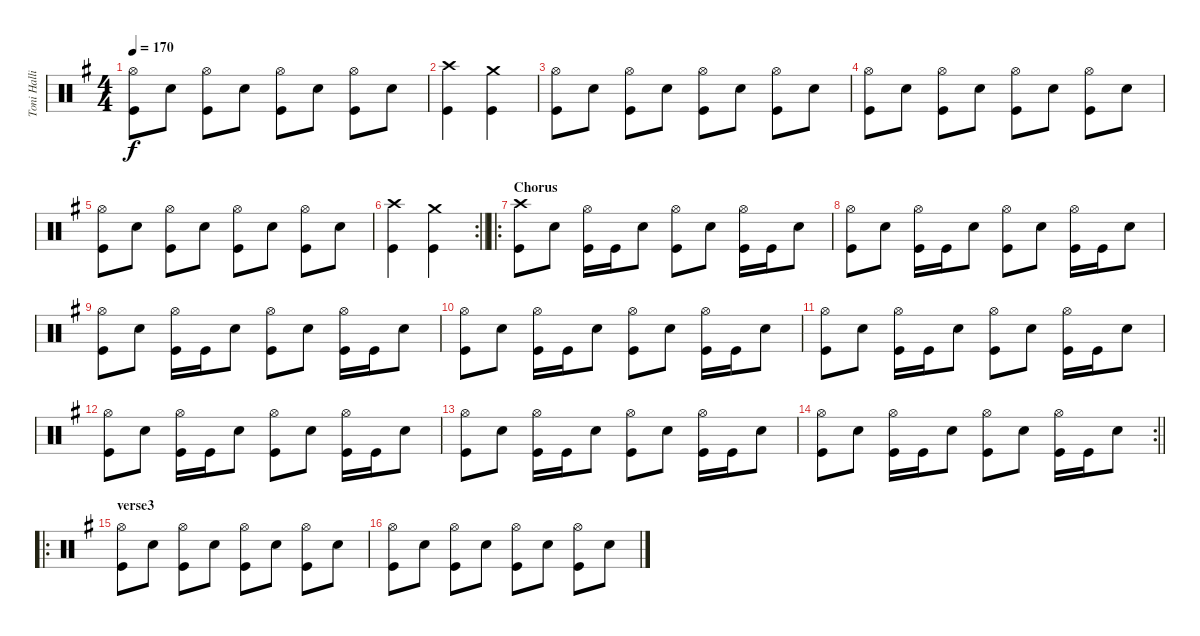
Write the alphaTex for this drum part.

\track ("Toni Hallio" "Toni Halli") {instrument percussion}
\staff {score}
\articulation defaults
\ts (4 4)
\tempo 170
\clef neutral
\ks g
("Hi-Hat (open)" "Kick (hit)").8{dy f} "Snare (hit) 2".8 ("Hi-Hat (open)" "Kick (hit)").8 "Snare (hit) 2".8 ("Hi-Hat (open)" "Kick (hit)").8 "Snare (hit) 2".8 ("Hi-Hat (open)" "Kick (hit)").8 "Snare (hit) 2".8 |
("Crash high (hit)" "Kick (hit)").4 ("Crash medium (hit)" "Kick (hit)").4 |
("Hi-Hat (open)" "Kick (hit)").8 "Snare (hit) 2".8 ("Hi-Hat (open)" "Kick (hit)").8 "Snare (hit) 2".8 ("Hi-Hat (open)" "Kick (hit)").8 "Snare (hit) 2".8 ("Hi-Hat (open)" "Kick (hit)").8 "Snare (hit) 2".8 |
("Hi-Hat (open)" "Kick (hit)").8 "Snare (hit) 2".8 ("Hi-Hat (open)" "Kick (hit)").8 "Snare (hit) 2".8 ("Hi-Hat (open)" "Kick (hit)").8 "Snare (hit) 2".8 ("Hi-Hat (open)" "Kick (hit)").8 "Snare (hit) 2".8 |
("Hi-Hat (open)" "Kick (hit)").8 "Snare (hit) 2".8 ("Hi-Hat (open)" "Kick (hit)").8 "Snare (hit) 2".8 ("Hi-Hat (open)" "Kick (hit)").8 "Snare (hit) 2".8 ("Hi-Hat (open)" "Kick (hit)").8 "Snare (hit) 2".8 |
\rc 2
\barLineRight lightlight
("Crash high (hit)" "Kick (hit)").4 ("Crash medium (hit)" "Kick (hit)").4 |
\ro
\section ("" "Chorus")
("Crash high (hit)" "Kick (hit)").8 "Snare (hit) 2".8 ("Hi-Hat (open)" "Kick (hit)").16 "Kick (hit)".16 "Snare (hit) 2".8 ("Hi-Hat (open)" "Kick (hit)").8 "Snare (hit) 2".8 ("Hi-Hat (open)" "Kick (hit)").16 "Kick (hit)".16 "Snare (hit) 2".8 |
("Hi-Hat (open)" "Kick (hit)").8 "Snare (hit) 2".8 ("Hi-Hat (open)" "Kick (hit)").16 "Kick (hit)".16 "Snare (hit) 2".8 ("Hi-Hat (open)" "Kick (hit)").8 "Snare (hit) 2".8 ("Hi-Hat (open)" "Kick (hit)").16 "Kick (hit)".16 "Snare (hit) 2".8 |
("Hi-Hat (open)" "Kick (hit)").8 "Snare (hit) 2".8 ("Hi-Hat (open)" "Kick (hit)").16 "Kick (hit)".16 "Snare (hit) 2".8 ("Hi-Hat (open)" "Kick (hit)").8 "Snare (hit) 2".8 ("Hi-Hat (open)" "Kick (hit)").16 "Kick (hit)".16 "Snare (hit) 2".8 |
("Hi-Hat (open)" "Kick (hit)").8 "Snare (hit) 2".8 ("Hi-Hat (open)" "Kick (hit)").16 "Kick (hit)".16 "Snare (hit) 2".8 ("Hi-Hat (open)" "Kick (hit)").8 "Snare (hit) 2".8 ("Hi-Hat (open)" "Kick (hit)").16 "Kick (hit)".16 "Snare (hit) 2".8 |
("Hi-Hat (open)" "Kick (hit)").8 "Snare (hit) 2".8 ("Hi-Hat (open)" "Kick (hit)").16 "Kick (hit)".16 "Snare (hit) 2".8 ("Hi-Hat (open)" "Kick (hit)").8 "Snare (hit) 2".8 ("Hi-Hat (open)" "Kick (hit)").16 "Kick (hit)".16 "Snare (hit) 2".8 |
("Hi-Hat (open)" "Kick (hit)").8 "Snare (hit) 2".8 ("Hi-Hat (open)" "Kick (hit)").16 "Kick (hit)".16 "Snare (hit) 2".8 ("Hi-Hat (open)" "Kick (hit)").8 "Snare (hit) 2".8 ("Hi-Hat (open)" "Kick (hit)").16 "Kick (hit)".16 "Snare (hit) 2".8 |
("Hi-Hat (open)" "Kick (hit)").8 "Snare (hit) 2".8 ("Hi-Hat (open)" "Kick (hit)").16 "Kick (hit)".16 "Snare (hit) 2".8 ("Hi-Hat (open)" "Kick (hit)").8 "Snare (hit) 2".8 ("Hi-Hat (open)" "Kick (hit)").16 "Kick (hit)".16 "Snare (hit) 2".8 |
\rc 2
\barLineRight lightlight
("Hi-Hat (open)" "Kick (hit)").8 "Snare (hit) 2".8 ("Hi-Hat (open)" "Kick (hit)").16 "Kick (hit)".16 "Snare (hit) 2".8 ("Hi-Hat (open)" "Kick (hit)").8 "Snare (hit) 2".8 ("Hi-Hat (open)" "Kick (hit)").16 "Kick (hit)".16 "Snare (hit) 2".8 |
\ro
\section ("" "verse3")
("Hi-Hat (open)" "Kick (hit)").8 "Snare (hit) 2".8 ("Hi-Hat (open)" "Kick (hit)").8 "Snare (hit) 2".8 ("Hi-Hat (open)" "Kick (hit)").8 "Snare (hit) 2".8 ("Hi-Hat (open)" "Kick (hit)").8 "Snare (hit) 2".8 |
("Hi-Hat (open)" "Kick (hit)").8 "Snare (hit) 2".8 ("Hi-Hat (open)" "Kick (hit)").8 "Snare (hit) 2".8 ("Hi-Hat (open)" "Kick (hit)").8 "Snare (hit) 2".8 ("Hi-Hat (open)" "Kick (hit)").8 "Snare (hit) 2".8
